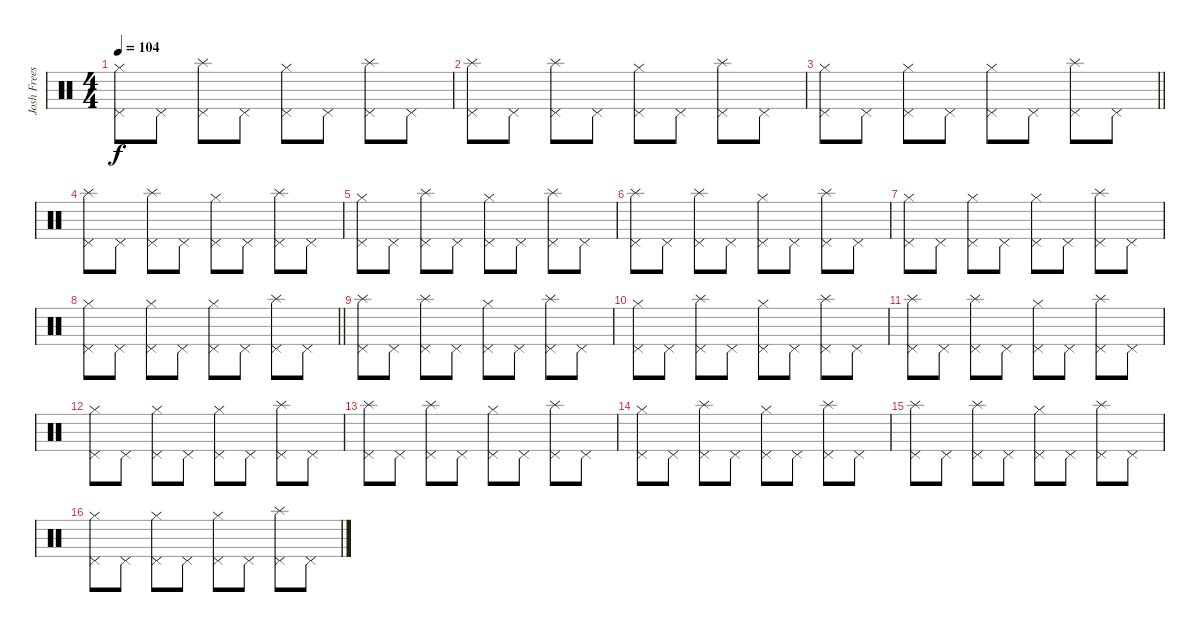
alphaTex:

\track ("Josh Freese (Studio Drummer)" "Josh Frees") {instrument percussion}
\staff {score}
\articulation defaults
\ts (4 4)
\tempo 104
\clef neutral
\ks c
("Hi-Hat (closed)" "Pedal Hi-Hat (hit)").8{dy f} "Pedal Hi-Hat (hit)".8 ("Splash (hit)" "Pedal Hi-Hat (hit)").8 "Pedal Hi-Hat (hit)".8 ("Hi-Hat (closed)" "Pedal Hi-Hat (hit)").8 "Pedal Hi-Hat (hit)".8 ("Splash (hit)" "Pedal Hi-Hat (hit)").8 "Pedal Hi-Hat (hit)".8 |
("Splash (hit)" "Pedal Hi-Hat (hit)").8 "Pedal Hi-Hat (hit)".8 ("Splash (hit)" "Pedal Hi-Hat (hit)").8 "Pedal Hi-Hat (hit)".8 ("Hi-Hat (closed)" "Pedal Hi-Hat (hit)").8 "Pedal Hi-Hat (hit)".8 ("Splash (hit)" "Pedal Hi-Hat (hit)").8 "Pedal Hi-Hat (hit)".8 |
\barLineRight lightlight
("Hi-Hat (closed)" "Pedal Hi-Hat (hit)").8 "Pedal Hi-Hat (hit)".8 ("Hi-Hat (closed)" "Pedal Hi-Hat (hit)").8 "Pedal Hi-Hat (hit)".8 ("Hi-Hat (closed)" "Pedal Hi-Hat (hit)").8 "Pedal Hi-Hat (hit)".8 ("Splash (hit)" "Pedal Hi-Hat (hit)").8 "Pedal Hi-Hat (hit)".8 |
("Splash (hit)" "Pedal Hi-Hat (hit)").8 "Pedal Hi-Hat (hit)".8 ("Splash (hit)" "Pedal Hi-Hat (hit)").8 "Pedal Hi-Hat (hit)".8 ("Hi-Hat (closed)" "Pedal Hi-Hat (hit)").8 "Pedal Hi-Hat (hit)".8 ("Splash (hit)" "Pedal Hi-Hat (hit)").8 "Pedal Hi-Hat (hit)".8 |
("Hi-Hat (closed)" "Pedal Hi-Hat (hit)").8 "Pedal Hi-Hat (hit)".8 ("Splash (hit)" "Pedal Hi-Hat (hit)").8 "Pedal Hi-Hat (hit)".8 ("Hi-Hat (closed)" "Pedal Hi-Hat (hit)").8 "Pedal Hi-Hat (hit)".8 ("Splash (hit)" "Pedal Hi-Hat (hit)").8 "Pedal Hi-Hat (hit)".8 |
("Splash (hit)" "Pedal Hi-Hat (hit)").8 "Pedal Hi-Hat (hit)".8 ("Splash (hit)" "Pedal Hi-Hat (hit)").8 "Pedal Hi-Hat (hit)".8 ("Hi-Hat (closed)" "Pedal Hi-Hat (hit)").8 "Pedal Hi-Hat (hit)".8 ("Splash (hit)" "Pedal Hi-Hat (hit)").8 "Pedal Hi-Hat (hit)".8 |
("Hi-Hat (closed)" "Pedal Hi-Hat (hit)").8 "Pedal Hi-Hat (hit)".8 ("Hi-Hat (closed)" "Pedal Hi-Hat (hit)").8 "Pedal Hi-Hat (hit)".8 ("Hi-Hat (closed)" "Pedal Hi-Hat (hit)").8 "Pedal Hi-Hat (hit)".8 ("Splash (hit)" "Pedal Hi-Hat (hit)").8 "Pedal Hi-Hat (hit)".8 |
\barLineRight lightlight
("Hi-Hat (closed)" "Pedal Hi-Hat (hit)").8 "Pedal Hi-Hat (hit)".8 ("Hi-Hat (closed)" "Pedal Hi-Hat (hit)").8 "Pedal Hi-Hat (hit)".8 ("Hi-Hat (closed)" "Pedal Hi-Hat (hit)").8 "Pedal Hi-Hat (hit)".8 ("Splash (hit)" "Pedal Hi-Hat (hit)").8 "Pedal Hi-Hat (hit)".8 |
("Splash (hit)" "Pedal Hi-Hat (hit)").8 "Pedal Hi-Hat (hit)".8 ("Splash (hit)" "Pedal Hi-Hat (hit)").8 "Pedal Hi-Hat (hit)".8 ("Hi-Hat (closed)" "Pedal Hi-Hat (hit)").8 "Pedal Hi-Hat (hit)".8 ("Splash (hit)" "Pedal Hi-Hat (hit)").8 "Pedal Hi-Hat (hit)".8 |
("Hi-Hat (closed)" "Pedal Hi-Hat (hit)").8 "Pedal Hi-Hat (hit)".8 ("Splash (hit)" "Pedal Hi-Hat (hit)").8 "Pedal Hi-Hat (hit)".8 ("Hi-Hat (closed)" "Pedal Hi-Hat (hit)").8 "Pedal Hi-Hat (hit)".8 ("Splash (hit)" "Pedal Hi-Hat (hit)").8 "Pedal Hi-Hat (hit)".8 |
("Splash (hit)" "Pedal Hi-Hat (hit)").8 "Pedal Hi-Hat (hit)".8 ("Splash (hit)" "Pedal Hi-Hat (hit)").8 "Pedal Hi-Hat (hit)".8 ("Hi-Hat (closed)" "Pedal Hi-Hat (hit)").8 "Pedal Hi-Hat (hit)".8 ("Splash (hit)" "Pedal Hi-Hat (hit)").8 "Pedal Hi-Hat (hit)".8 |
("Hi-Hat (closed)" "Pedal Hi-Hat (hit)").8 "Pedal Hi-Hat (hit)".8 ("Hi-Hat (closed)" "Pedal Hi-Hat (hit)").8 "Pedal Hi-Hat (hit)".8 ("Hi-Hat (closed)" "Pedal Hi-Hat (hit)").8 "Pedal Hi-Hat (hit)".8 ("Splash (hit)" "Pedal Hi-Hat (hit)").8 "Pedal Hi-Hat (hit)".8 |
("Splash (hit)" "Pedal Hi-Hat (hit)").8 "Pedal Hi-Hat (hit)".8 ("Splash (hit)" "Pedal Hi-Hat (hit)").8 "Pedal Hi-Hat (hit)".8 ("Hi-Hat (closed)" "Pedal Hi-Hat (hit)").8 "Pedal Hi-Hat (hit)".8 ("Splash (hit)" "Pedal Hi-Hat (hit)").8 "Pedal Hi-Hat (hit)".8 |
("Hi-Hat (closed)" "Pedal Hi-Hat (hit)").8 "Pedal Hi-Hat (hit)".8 ("Splash (hit)" "Pedal Hi-Hat (hit)").8 "Pedal Hi-Hat (hit)".8 ("Hi-Hat (closed)" "Pedal Hi-Hat (hit)").8 "Pedal Hi-Hat (hit)".8 ("Splash (hit)" "Pedal Hi-Hat (hit)").8 "Pedal Hi-Hat (hit)".8 |
("Splash (hit)" "Pedal Hi-Hat (hit)").8 "Pedal Hi-Hat (hit)".8 ("Splash (hit)" "Pedal Hi-Hat (hit)").8 "Pedal Hi-Hat (hit)".8 ("Hi-Hat (closed)" "Pedal Hi-Hat (hit)").8 "Pedal Hi-Hat (hit)".8 ("Splash (hit)" "Pedal Hi-Hat (hit)").8 "Pedal Hi-Hat (hit)".8 |
("Hi-Hat (closed)" "Pedal Hi-Hat (hit)").8 "Pedal Hi-Hat (hit)".8 ("Hi-Hat (closed)" "Pedal Hi-Hat (hit)").8 "Pedal Hi-Hat (hit)".8 ("Hi-Hat (closed)" "Pedal Hi-Hat (hit)").8 "Pedal Hi-Hat (hit)".8 ("Splash (hit)" "Pedal Hi-Hat (hit)").8 "Pedal Hi-Hat (hit)".8
